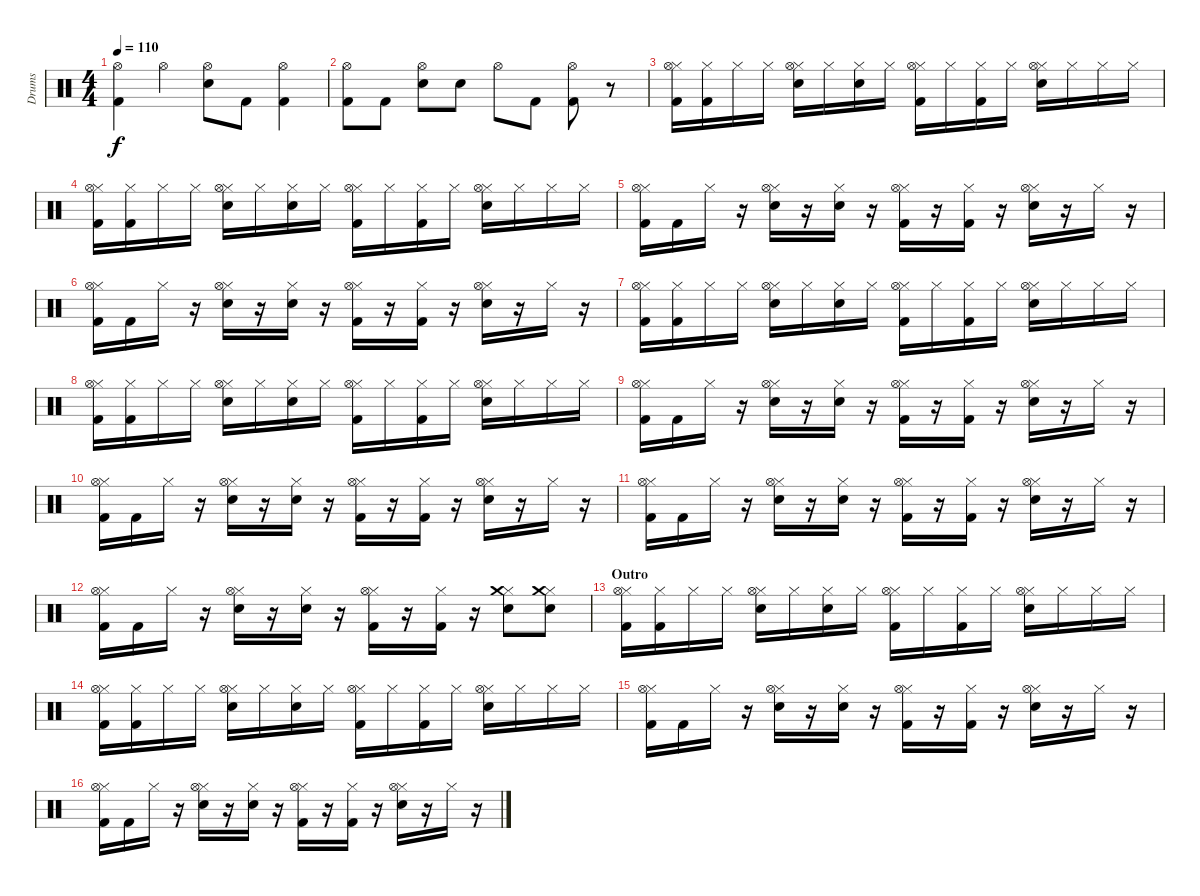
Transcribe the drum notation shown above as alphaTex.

\track ("Drums" "Drums") {instrument percussion}
\staff {score}
\articulation defaults
\ts (4 4)
\tempo 110
\clef neutral
\ks c
("Hi-Hat (open)" "Kick (hit) 2").4{dy f} "Hi-Hat (open)".4 ("Hi-Hat (open)" "Snare (hit) 2").8 "Kick (hit) 2".8 ("Hi-Hat (open)" "Kick (hit) 2").4 |
("Hi-Hat (open)" "Kick (hit) 2").8 "Kick (hit) 2".8 ("Hi-Hat (open)" "Snare (hit) 2").8 "Snare (hit) 2".8 "Hi-Hat (open)".8 "Kick (hit) 2".8 ("Hi-Hat (open)" "Kick (hit) 2").8 r.8 |
("Hi-Hat (closed)" "Hi-Hat (open)" "Kick (hit) 2").16 ("Hi-Hat (closed)" "Kick (hit) 2").16 "Hi-Hat (closed)".16 "Hi-Hat (closed)".16 ("Hi-Hat (closed)" "Hi-Hat (open)" "Snare (hit) 2").16 "Hi-Hat (closed)".16 ("Hi-Hat (closed)" "Snare (hit) 2").16 "Hi-Hat (closed)".16 ("Hi-Hat (closed)" "Hi-Hat (open)" "Kick (hit) 2").16 "Hi-Hat (closed)".16 ("Hi-Hat (closed)" "Kick (hit) 2").16 "Hi-Hat (closed)".16 ("Hi-Hat (closed)" "Hi-Hat (open)" "Snare (hit) 2").16 "Hi-Hat (closed)".16 "Hi-Hat (closed)".16 "Hi-Hat (closed)".16 |
("Hi-Hat (closed)" "Hi-Hat (open)" "Kick (hit) 2").16 ("Hi-Hat (closed)" "Kick (hit) 2").16 "Hi-Hat (closed)".16 "Hi-Hat (closed)".16 ("Hi-Hat (closed)" "Hi-Hat (open)" "Snare (hit) 2").16 "Hi-Hat (closed)".16 ("Hi-Hat (closed)" "Snare (hit) 2").16 "Hi-Hat (closed)".16 ("Hi-Hat (closed)" "Hi-Hat (open)" "Kick (hit) 2").16 "Hi-Hat (closed)".16 ("Hi-Hat (closed)" "Kick (hit) 2").16 "Hi-Hat (closed)".16 ("Hi-Hat (closed)" "Hi-Hat (open)" "Snare (hit) 2").16 "Hi-Hat (closed)".16 "Hi-Hat (closed)".16 "Hi-Hat (closed)".16 |
("Hi-Hat (closed)" "Hi-Hat (open)" "Kick (hit) 2").16 "Kick (hit) 2".16 "Hi-Hat (closed)".16 r.16 ("Hi-Hat (closed)" "Hi-Hat (open)" "Snare (hit) 2").16 r.16 ("Hi-Hat (closed)" "Snare (hit) 2").16 r.16 ("Hi-Hat (closed)" "Hi-Hat (open)" "Kick (hit) 2").16 r.16 ("Hi-Hat (closed)" "Kick (hit) 2").16 r.16 ("Hi-Hat (closed)" "Hi-Hat (open)" "Snare (hit) 2").16 r.16 "Hi-Hat (closed)".16 r.16 |
("Hi-Hat (closed)" "Hi-Hat (open)" "Kick (hit) 2").16 "Kick (hit) 2".16 "Hi-Hat (closed)".16 r.16 ("Hi-Hat (closed)" "Hi-Hat (open)" "Snare (hit) 2").16 r.16 ("Hi-Hat (closed)" "Snare (hit) 2").16 r.16 ("Hi-Hat (closed)" "Hi-Hat (open)" "Kick (hit) 2").16 r.16 ("Hi-Hat (closed)" "Kick (hit) 2").16 r.16 ("Hi-Hat (closed)" "Hi-Hat (open)" "Snare (hit) 2").16 r.16 "Hi-Hat (closed)".16 r.16 |
("Hi-Hat (closed)" "Hi-Hat (open)" "Kick (hit) 2").16 ("Hi-Hat (closed)" "Kick (hit) 2").16 "Hi-Hat (closed)".16 "Hi-Hat (closed)".16 ("Hi-Hat (closed)" "Hi-Hat (open)" "Snare (hit) 2").16 "Hi-Hat (closed)".16 ("Hi-Hat (closed)" "Snare (hit) 2").16 "Hi-Hat (closed)".16 ("Hi-Hat (closed)" "Hi-Hat (open)" "Kick (hit) 2").16 "Hi-Hat (closed)".16 ("Hi-Hat (closed)" "Kick (hit) 2").16 "Hi-Hat (closed)".16 ("Hi-Hat (closed)" "Hi-Hat (open)" "Snare (hit) 2").16 "Hi-Hat (closed)".16 "Hi-Hat (closed)".16 "Hi-Hat (closed)".16 |
("Hi-Hat (closed)" "Hi-Hat (open)" "Kick (hit) 2").16 ("Hi-Hat (closed)" "Kick (hit) 2").16 "Hi-Hat (closed)".16 "Hi-Hat (closed)".16 ("Hi-Hat (closed)" "Hi-Hat (open)" "Snare (hit) 2").16 "Hi-Hat (closed)".16 ("Hi-Hat (closed)" "Snare (hit) 2").16 "Hi-Hat (closed)".16 ("Hi-Hat (closed)" "Hi-Hat (open)" "Kick (hit) 2").16 "Hi-Hat (closed)".16 ("Hi-Hat (closed)" "Kick (hit) 2").16 "Hi-Hat (closed)".16 ("Hi-Hat (closed)" "Hi-Hat (open)" "Snare (hit) 2").16 "Hi-Hat (closed)".16 "Hi-Hat (closed)".16 "Hi-Hat (closed)".16 |
("Hi-Hat (closed)" "Hi-Hat (open)" "Kick (hit) 2").16 "Kick (hit) 2".16 "Hi-Hat (closed)".16 r.16 ("Hi-Hat (closed)" "Hi-Hat (open)" "Snare (hit) 2").16 r.16 ("Hi-Hat (closed)" "Snare (hit) 2").16 r.16 ("Hi-Hat (closed)" "Hi-Hat (open)" "Kick (hit) 2").16 r.16 ("Hi-Hat (closed)" "Kick (hit) 2").16 r.16 ("Hi-Hat (closed)" "Hi-Hat (open)" "Snare (hit) 2").16 r.16 "Hi-Hat (closed)".16 r.16 |
("Hi-Hat (closed)" "Hi-Hat (open)" "Kick (hit) 2").16 "Kick (hit) 2".16 "Hi-Hat (closed)".16 r.16 ("Hi-Hat (closed)" "Hi-Hat (open)" "Snare (hit) 2").16 r.16 ("Hi-Hat (closed)" "Snare (hit) 2").16 r.16 ("Hi-Hat (closed)" "Hi-Hat (open)" "Kick (hit) 2").16 r.16 ("Hi-Hat (closed)" "Kick (hit) 2").16 r.16 ("Hi-Hat (closed)" "Hi-Hat (open)" "Snare (hit) 2").16 r.16 "Hi-Hat (closed)".16 r.16 |
("Hi-Hat (closed)" "Hi-Hat (open)" "Kick (hit) 2").16 "Kick (hit) 2".16 "Hi-Hat (closed)".16 r.16 ("Hi-Hat (closed)" "Hi-Hat (open)" "Snare (hit) 2").16 r.16 ("Hi-Hat (closed)" "Snare (hit) 2").16 r.16 ("Hi-Hat (closed)" "Hi-Hat (open)" "Kick (hit) 2").16 r.16 ("Hi-Hat (closed)" "Kick (hit) 2").16 r.16 ("Hi-Hat (closed)" "Hi-Hat (open)" "Snare (hit) 2").16 r.16 "Hi-Hat (closed)".16 r.16 |
("Hi-Hat (closed)" "Hi-Hat (open)" "Kick (hit) 2").16 "Kick (hit) 2".16 "Hi-Hat (closed)".16 r.16 ("Hi-Hat (closed)" "Hi-Hat (open)" "Snare (hit) 2").16 r.16 ("Hi-Hat (closed)" "Snare (hit) 2").16 r.16 ("Hi-Hat (closed)" "Hi-Hat (open)" "Kick (hit) 2").16 r.16 ("Hi-Hat (closed)" "Kick (hit) 2").16 r.16 ("Hi-Hat (closed)" "Crash medium (hit)" "Snare (hit) 2").8 ("Hi-Hat (closed)" "Crash medium (hit)" "Snare (hit) 2").8 |
\section ("" "Outro")
("Hi-Hat (closed)" "Hi-Hat (open)" "Kick (hit) 2").16 ("Hi-Hat (closed)" "Kick (hit) 2").16 "Hi-Hat (closed)".16 "Hi-Hat (closed)".16 ("Hi-Hat (closed)" "Hi-Hat (open)" "Snare (hit) 2").16 "Hi-Hat (closed)".16 ("Hi-Hat (closed)" "Snare (hit) 2").16 "Hi-Hat (closed)".16 ("Hi-Hat (closed)" "Hi-Hat (open)" "Kick (hit) 2").16 "Hi-Hat (closed)".16 ("Hi-Hat (closed)" "Kick (hit) 2").16 "Hi-Hat (closed)".16 ("Hi-Hat (closed)" "Hi-Hat (open)" "Snare (hit) 2").16 "Hi-Hat (closed)".16 "Hi-Hat (closed)".16 "Hi-Hat (closed)".16 |
("Hi-Hat (closed)" "Hi-Hat (open)" "Kick (hit) 2").16 ("Hi-Hat (closed)" "Kick (hit) 2").16 "Hi-Hat (closed)".16 "Hi-Hat (closed)".16 ("Hi-Hat (closed)" "Hi-Hat (open)" "Snare (hit) 2").16 "Hi-Hat (closed)".16 ("Hi-Hat (closed)" "Snare (hit) 2").16 "Hi-Hat (closed)".16 ("Hi-Hat (closed)" "Hi-Hat (open)" "Kick (hit) 2").16 "Hi-Hat (closed)".16 ("Hi-Hat (closed)" "Kick (hit) 2").16 "Hi-Hat (closed)".16 ("Hi-Hat (closed)" "Hi-Hat (open)" "Snare (hit) 2").16 "Hi-Hat (closed)".16 "Hi-Hat (closed)".16 "Hi-Hat (closed)".16 |
("Hi-Hat (closed)" "Hi-Hat (open)" "Kick (hit) 2").16 "Kick (hit) 2".16 "Hi-Hat (closed)".16 r.16 ("Hi-Hat (closed)" "Hi-Hat (open)" "Snare (hit) 2").16 r.16 ("Hi-Hat (closed)" "Snare (hit) 2").16 r.16 ("Hi-Hat (closed)" "Hi-Hat (open)" "Kick (hit) 2").16 r.16 ("Hi-Hat (closed)" "Kick (hit) 2").16 r.16 ("Hi-Hat (closed)" "Hi-Hat (open)" "Snare (hit) 2").16 r.16 "Hi-Hat (closed)".16 r.16 |
("Hi-Hat (closed)" "Hi-Hat (open)" "Kick (hit) 2").16 "Kick (hit) 2".16 "Hi-Hat (closed)".16 r.16 ("Hi-Hat (closed)" "Hi-Hat (open)" "Snare (hit) 2").16 r.16 ("Hi-Hat (closed)" "Snare (hit) 2").16 r.16 ("Hi-Hat (closed)" "Hi-Hat (open)" "Kick (hit) 2").16 r.16 ("Hi-Hat (closed)" "Kick (hit) 2").16 r.16 ("Hi-Hat (closed)" "Hi-Hat (open)" "Snare (hit) 2").16 r.16 "Hi-Hat (closed)".16 r.16
